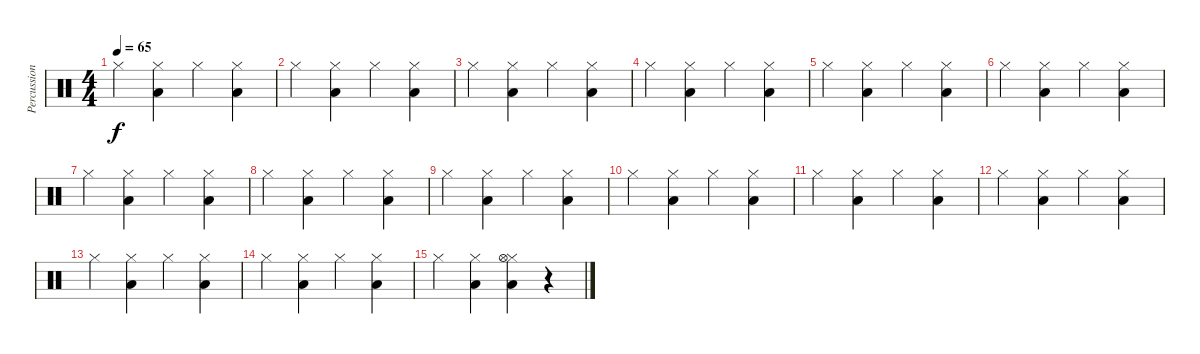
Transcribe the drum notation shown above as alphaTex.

\track ("Percussions" "Percussion") {instrument percussion}
\staff {score}
\articulation defaults
\ts (4 4)
\tempo 65
\clef neutral
\ks c "Hi-Hat (closed)".4{dy f}
("Hi-Hat (closed)" "Low Floor Tom (hit)").4 "Hi-Hat (closed)".4 ("Hi-Hat (closed)" "Low Floor Tom (hit)").4 |
"Hi-Hat (closed)".4 ("Hi-Hat (closed)" "Low Floor Tom (hit)").4 "Hi-Hat (closed)".4 ("Hi-Hat (closed)" "Low Floor Tom (hit)").4 |
"Hi-Hat (closed)".4 ("Hi-Hat (closed)" "Low Floor Tom (hit)").4 "Hi-Hat (closed)".4 ("Hi-Hat (closed)" "Low Floor Tom (hit)").4 |
"Hi-Hat (closed)".4 ("Hi-Hat (closed)" "Low Floor Tom (hit)").4 "Hi-Hat (closed)".4 ("Hi-Hat (closed)" "Low Floor Tom (hit)").4 |
"Hi-Hat (closed)".4 ("Hi-Hat (closed)" "Low Floor Tom (hit)").4 "Hi-Hat (closed)".4 ("Hi-Hat (closed)" "Low Floor Tom (hit)").4 |
"Hi-Hat (closed)".4 ("Hi-Hat (closed)" "Low Floor Tom (hit)").4 "Hi-Hat (closed)".4 ("Hi-Hat (closed)" "Low Floor Tom (hit)").4 |
"Hi-Hat (closed)".4 ("Hi-Hat (closed)" "Low Floor Tom (hit)").4 "Hi-Hat (closed)".4 ("Hi-Hat (closed)" "Low Floor Tom (hit)").4 |
"Hi-Hat (closed)".4 ("Hi-Hat (closed)" "Low Floor Tom (hit)").4 "Hi-Hat (closed)".4 ("Hi-Hat (closed)" "Low Floor Tom (hit)").4 |
"Hi-Hat (closed)".4 ("Hi-Hat (closed)" "Low Floor Tom (hit)").4 "Hi-Hat (closed)".4 ("Hi-Hat (closed)" "Low Floor Tom (hit)").4 |
"Hi-Hat (closed)".4 ("Hi-Hat (closed)" "Low Floor Tom (hit)").4 "Hi-Hat (closed)".4 ("Hi-Hat (closed)" "Low Floor Tom (hit)").4 |
"Hi-Hat (closed)".4 ("Hi-Hat (closed)" "Low Floor Tom (hit)").4 "Hi-Hat (closed)".4 ("Hi-Hat (closed)" "Low Floor Tom (hit)").4 |
"Hi-Hat (closed)".4 ("Hi-Hat (closed)" "Low Floor Tom (hit)").4 "Hi-Hat (closed)".4 ("Hi-Hat (closed)" "Low Floor Tom (hit)").4 |
"Hi-Hat (closed)".4 ("Hi-Hat (closed)" "Low Floor Tom (hit)").4 "Hi-Hat (closed)".4 ("Hi-Hat (closed)" "Low Floor Tom (hit)").4 |
"Hi-Hat (closed)".4 ("Hi-Hat (closed)" "Low Floor Tom (hit)").4 "Hi-Hat (closed)".4 ("Hi-Hat (closed)" "Low Floor Tom (hit)").4 |
"Hi-Hat (closed)".4 ("Hi-Hat (closed)" "Low Floor Tom (hit)").4 ("Hi-Hat (closed)" "Hi-Hat (open)" "Low Tom (hit)").4 r.4
